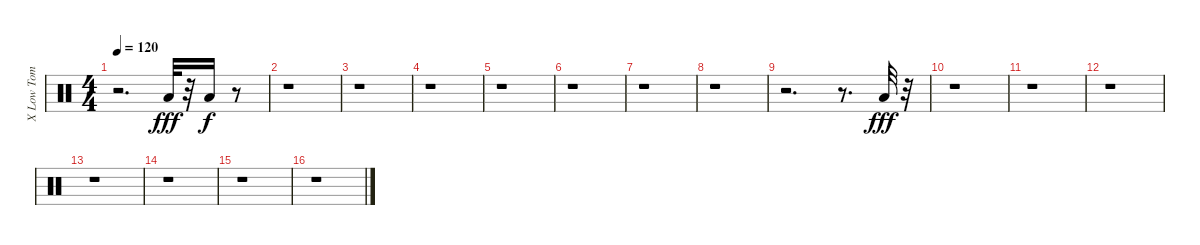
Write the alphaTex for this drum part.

\track ("X Low Tom           " "X Low Tom ") {instrument percussion}
\staff {score}
\articulation defaults
\ts (4 4)
\tempo 120
\clef neutral
\ks c
r.2{d dy f} "Low Floor Tom (hit)".32{dy fff} r.32 "Low Floor Tom (hit)".16{dy f} r.8 |
r.1 |
r.1 |
r.1 |
r.1 |
r.1 |
r.1 |
r.1 |
r.2{d} r.8{d} "Low Floor Tom (hit)".32{dy fff} r.32 |
r.1 |
r.1 |
r.1 |
r.1 |
r.1 |
r.1 |
r.1
